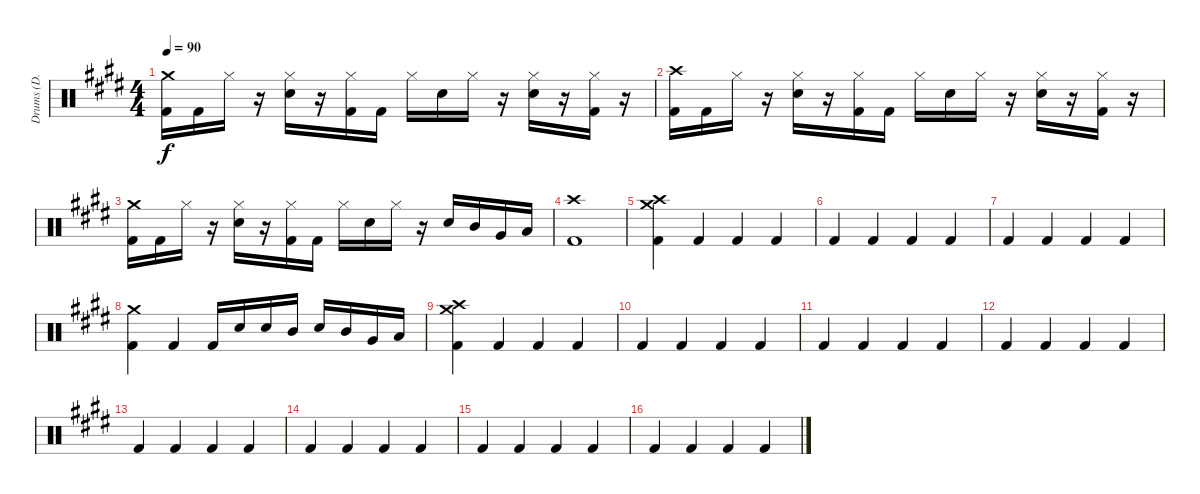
\track ("Drums (D. Adair)" "Drums (D. ") {instrument percussion}
\staff {score}
\articulation defaults
\ts (4 4)
\tempo 90
\clef neutral
\ks e
("Crash medium (hit)" "Kick (hit) 2").16{dy f} "Kick (hit) 2".16 "Hi-Hat (closed)".16 r.16 ("Hi-Hat (closed)" "Snare (hit) 2").16 r.16 ("Hi-Hat (closed)" "Kick (hit) 2").16 "Kick (hit) 2".16 "Hi-Hat (closed)".16 "Snare (hit) 2".16 "Hi-Hat (closed)".16 r.16 ("Hi-Hat (closed)" "Snare (hit) 2").16 r.16 ("Hi-Hat (closed)" "Kick (hit) 2").16 r.16 |
("Crash high (hit)" "Kick (hit) 2").16 "Kick (hit) 2".16 "Hi-Hat (closed)".16 r.16 ("Hi-Hat (closed)" "Snare (hit) 2").16 r.16 ("Hi-Hat (closed)" "Kick (hit) 2").16 "Kick (hit) 2".16 "Hi-Hat (closed)".16 "Snare (hit) 2".16 "Hi-Hat (closed)".16 r.16 ("Hi-Hat (closed)" "Snare (hit) 2").16 r.16 ("Hi-Hat (closed)" "Kick (hit) 2").16 r.16 |
("Crash medium (hit)" "Kick (hit) 2").16 "Kick (hit) 2".16 "Hi-Hat (closed)".16 r.16 ("Hi-Hat (closed)" "Snare (hit) 2").16 r.16 ("Hi-Hat (closed)" "Kick (hit) 2").16 "Kick (hit) 2".16 "Hi-Hat (closed)".16 "Snare (hit) 2".16 "Hi-Hat (closed)".16 r.16 "Snare (hit) 2".16 "Mid Tom (hit)".16 "Very Low Tom (hit)".16 "Low Floor Tom (hit)".16 |
("Crash high (hit)" "Kick (hit) 2").1 |
("Crash high (hit)" "Crash medium (hit)" "Kick (hit) 2").4 "Kick (hit) 2".4 "Kick (hit) 2".4 "Kick (hit) 2".4 |
"Kick (hit) 2".4 "Kick (hit) 2".4 "Kick (hit) 2".4 "Kick (hit) 2".4 |
"Kick (hit) 2".4 "Kick (hit) 2".4 "Kick (hit) 2".4 "Kick (hit) 2".4 |
("Crash medium (hit)" "Kick (hit) 2").4 "Kick (hit) 2".4 "Kick (hit) 2".16 "Snare (hit) 2".16 "Snare (hit) 2".16 "Mid Tom (hit)".16 "Snare (hit) 2".16 "Mid Tom (hit)".16 "Very Low Tom (hit)".16 "Low Floor Tom (hit)".16 |
("Crash high (hit)" "Crash medium (hit)" "Kick (hit) 2").4 "Kick (hit) 2".4 "Kick (hit) 2".4 "Kick (hit) 2".4 |
"Kick (hit) 2".4 "Kick (hit) 2".4 "Kick (hit) 2".4 "Kick (hit) 2".4 |
"Kick (hit) 2".4 "Kick (hit) 2".4 "Kick (hit) 2".4 "Kick (hit) 2".4 |
"Kick (hit) 2".4 "Kick (hit) 2".4 "Kick (hit) 2".4 "Kick (hit) 2".4 |
"Kick (hit) 2".4 "Kick (hit) 2".4 "Kick (hit) 2".4 "Kick (hit) 2".4 |
"Kick (hit) 2".4 "Kick (hit) 2".4 "Kick (hit) 2".4 "Kick (hit) 2".4 |
"Kick (hit) 2".4 "Kick (hit) 2".4 "Kick (hit) 2".4 "Kick (hit) 2".4 |
"Kick (hit) 2".4 "Kick (hit) 2".4 "Kick (hit) 2".4 "Kick (hit) 2".4
